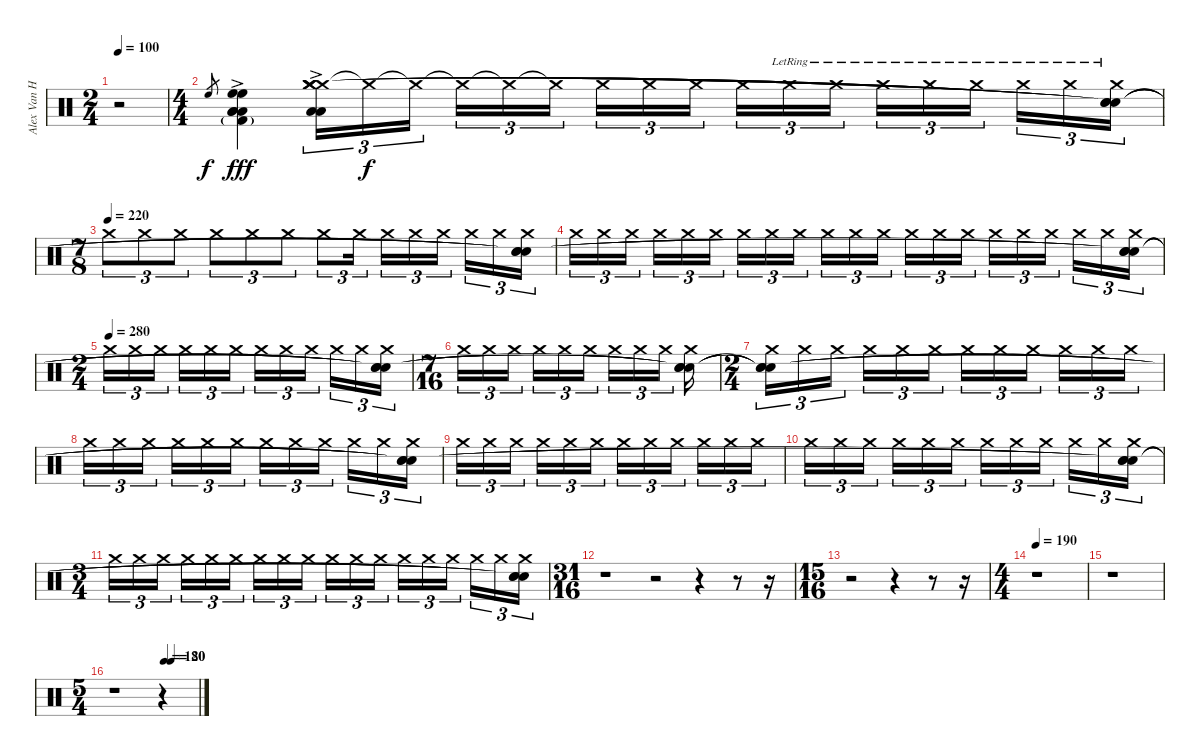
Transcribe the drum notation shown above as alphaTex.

\track ("Alex Van Halen" "Alex Van H") {instrument percussion}
\staff {score}
\articulation defaults
\ts (2 4)
\tempo 100
\clef neutral
\ks c
r.2{dy f} |
\ts (4 4)
"High Floor Tom (hit)".8{gr} ("Low Tom (hit)"{ac} "High Floor Tom (hit)"{ac} "High Floor Tom (hit)"{ac} "Low Tom (hit)"{ac} "Kick (hit) 2"{g} "Low Tom (hit)"{ac}).4{dy fff} ("Crash medium (hit)"{ac} "Crash medium (hit)"{ac} "Crash medium (hit)"{ac} "Crash medium (hit)"{ac} "Low Tom (hit)"{ac} "Low Tom (hit)"{ac}).16{tu (3 2)} "Crash medium (hit)"{t}.16{tu (3 2) dy f} "Crash medium (hit)"{t}.16{tu (3 2)} "Crash medium (hit)"{t}.16{tu (3 2)} "Crash medium (hit)"{t}.16{tu (3 2)} "Crash medium (hit)"{t}.16{tu (3 2)} "Crash medium (hit)".16{tu (3 2)} "Crash medium (hit)".16{tu (3 2)} "Crash medium (hit)".16{tu (3 2)} "Crash medium (hit)".16{tu (3 2)} "Crash medium (hit)"{lr}.16{tu (3 2)} "Crash medium (hit)"{lr}.16{tu (3 2)} "Crash medium (hit)"{lr}.16{tu (3 2)} "Crash medium (hit)"{lr}.16{tu (3 2)} "Crash medium (hit)"{lr}.16{tu (3 2)} "Crash medium (hit)"{lr}.16{tu (3 2)} "Crash medium (hit)"{lr}.16{tu (3 2) volume 6} ("Crash medium (hit)"{lr} "Snare (hit)"{t} "Snare (hit)"{t} "Snare (hit)"{t}).16{tu (3 2)} |
\ts (7 8)
\tempo (220)
"Crash medium (hit)".8{tu (3 2)} "Crash medium (hit)".8{tu (3 2)} "Crash medium (hit)".8{tu (3 2)} "Crash medium (hit)".8{tu (3 2)} "Crash medium (hit)".8{tu (3 2)} "Crash medium (hit)".8{tu (3 2)} "Crash medium (hit)".8{tu (3 2)} "Crash medium (hit)".16{tu (3 2)} "Crash medium (hit)".16{tu (3 2) volume 13} "Crash medium (hit)".16{tu (3 2)} "Crash medium (hit)".16{tu (3 2)} "Crash medium (hit)".16{tu (3 2)} "Crash medium (hit)".16{tu (3 2)} ("Crash medium (hit)" "Snare (hit)"{t} "Snare (hit)"{t} "Snare (hit)"{t}).16{tu (3 2)} |
"Crash medium (hit)".16{tu (3 2) volume 10} "Crash medium (hit)".16{tu (3 2)} "Crash medium (hit)".16{tu (3 2)} "Crash medium (hit)".16{tu (3 2)} "Crash medium (hit)".16{tu (3 2)} "Crash medium (hit)".16{tu (3 2)} "Crash medium (hit)".16{tu (3 2)} "Crash medium (hit)".16{tu (3 2)} "Crash medium (hit)".16{tu (3 2)} "Crash medium (hit)".16{tu (3 2) volume 8} "Crash medium (hit)".16{tu (3 2)} "Crash medium (hit)".16{tu (3 2)} "Crash medium (hit)".16{tu (3 2)} "Crash medium (hit)".16{tu (3 2)} "Crash medium (hit)".16{tu (3 2)} "Crash medium (hit)".16{tu (3 2)} "Crash medium (hit)".16{tu (3 2)} "Crash medium (hit)".16{tu (3 2) volume 10} "Crash medium (hit)".16{tu (3 2)} "Crash medium (hit)".16{tu (3 2)} ("Crash medium (hit)" "Snare (hit)"{t} "Snare (hit)"{t} "Snare (hit)"{t}).16{tu (3 2)} |
\ts (2 4)
\tempo (280)
"Crash medium (hit)".16{tu (3 2)} "Crash medium (hit)".16{tu (3 2)} "Crash medium (hit)".16{tu (3 2)} "Crash medium (hit)".16{tu (3 2)} "Crash medium (hit)".16{tu (3 2)} "Crash medium (hit)".16{tu (3 2)} "Crash medium (hit)".16{tu (3 2)} "Crash medium (hit)".16{tu (3 2)} "Crash medium (hit)".16{tu (3 2)} "Crash medium (hit)".16{tu (3 2)} "Crash medium (hit)".16{tu (3 2)} ("Crash medium (hit)" "Snare (hit)"{t} "Snare (hit)"{t} "Snare (hit)"{t}).16{tu (3 2)} |
\ts (7 16)
"Crash medium (hit)".16{tu (3 2)} "Crash medium (hit)".16{tu (3 2)} "Crash medium (hit)".16{tu (3 2)} "Crash medium (hit)".16{tu (3 2)} "Crash medium (hit)".16{tu (3 2)} "Crash medium (hit)".16{tu (3 2)} "Crash medium (hit)".16{tu (3 2)} "Crash medium (hit)".16{tu (3 2)} "Crash medium (hit)".16{tu (3 2)} ("Crash medium (hit)" "Snare (hit)"{t} "Snare (hit)"{t} "Snare (hit)"{t}).16 |
\ts (2 4)
("Crash medium (hit)" "Snare (hit)"{t} "Snare (hit)"{t} "Snare (hit)"{t}).16{tu (3 2)} "Crash medium (hit)".16{tu (3 2)} "Crash medium (hit)".16{tu (3 2)} "Crash medium (hit)".16{tu (3 2)} "Crash medium (hit)".16{tu (3 2)} "Crash medium (hit)".16{tu (3 2)} "Crash medium (hit)".16{tu (3 2)} "Crash medium (hit)".16{tu (3 2)} "Crash medium (hit)".16{tu (3 2)} "Crash medium (hit)".16{tu (3 2)} "Crash medium (hit)".16{tu (3 2)} "Crash medium (hit)".16{tu (3 2)} |
"Crash medium (hit)".16{tu (3 2)} "Crash medium (hit)".16{tu (3 2)} "Crash medium (hit)".16{tu (3 2)} "Crash medium (hit)".16{tu (3 2)} "Crash medium (hit)".16{tu (3 2)} "Crash medium (hit)".16{tu (3 2)} "Crash medium (hit)".16{tu (3 2)} "Crash medium (hit)".16{tu (3 2)} "Crash medium (hit)".16{tu (3 2)} "Crash medium (hit)".16{tu (3 2)} "Crash medium (hit)".16{tu (3 2)} ("Crash medium (hit)" "Snare (hit)"{t} "Snare (hit)"{t} "Snare (hit)"{t}).16{tu (3 2)} |
"Crash medium (hit)".16{tu (3 2)} "Crash medium (hit)".16{tu (3 2)} "Crash medium (hit)".16{tu (3 2)} "Crash medium (hit)".16{tu (3 2)} "Crash medium (hit)".16{tu (3 2)} "Crash medium (hit)".16{tu (3 2)} "Crash medium (hit)".16{tu (3 2)} "Crash medium (hit)".16{tu (3 2)} "Crash medium (hit)".16{tu (3 2)} "Crash medium (hit)".16{tu (3 2)} "Crash medium (hit)".16{tu (3 2) volume 3} "Crash medium (hit)".16{tu (3 2)} |
"Crash medium (hit)".16{tu (3 2)} "Crash medium (hit)".16{tu (3 2)} "Crash medium (hit)".16{tu (3 2)} "Crash medium (hit)".16{tu (3 2)} "Crash medium (hit)".16{tu (3 2)} "Crash medium (hit)".16{tu (3 2)} "Crash medium (hit)".16{tu (3 2)} "Crash medium (hit)".16{tu (3 2)} "Crash medium (hit)".16{tu (3 2)} "Crash medium (hit)".16{tu (3 2)} "Crash medium (hit)".16{tu (3 2)} ("Crash medium (hit)" "Snare (hit)"{t} "Snare (hit)"{t} "Snare (hit)"{t}).16{tu (3 2)} |
\ts (3 4)
"Crash medium (hit)".16{tu (3 2)} "Crash medium (hit)".16{tu (3 2)} "Crash medium (hit)".16{tu (3 2)} "Crash medium (hit)".16{tu (3 2)} "Crash medium (hit)".16{tu (3 2)} "Crash medium (hit)".16{tu (3 2)} "Crash medium (hit)".16{tu (3 2)} "Crash medium (hit)".16{tu (3 2)} "Crash medium (hit)".16{tu (3 2)} "Crash medium (hit)".16{tu (3 2)} "Crash medium (hit)".16{tu (3 2)} "Crash medium (hit)".16{tu (3 2)} "Crash medium (hit)".16{tu (3 2)} "Crash medium (hit)".16{tu (3 2)} "Crash medium (hit)".16{tu (3 2)} "Crash medium (hit)".16{tu (3 2)} "Crash medium (hit)".16{tu (3 2)} ("Crash medium (hit)" "Snare (hit)"{t} "Snare (hit)"{t} "Snare (hit)"{t}).16{tu (3 2)} |
\ts (31 16)
r.1 r.2 r.4 r.8 r.16 |
\ts (15 16)
r.2 r.4 r.8 r.16 |
\ts (4 4)
\tempo 190
r.1 |
r.1 |
\ts (5 4)
\tempo (120 0.6)
\tempo (80 0.68)
r.1 r.4
